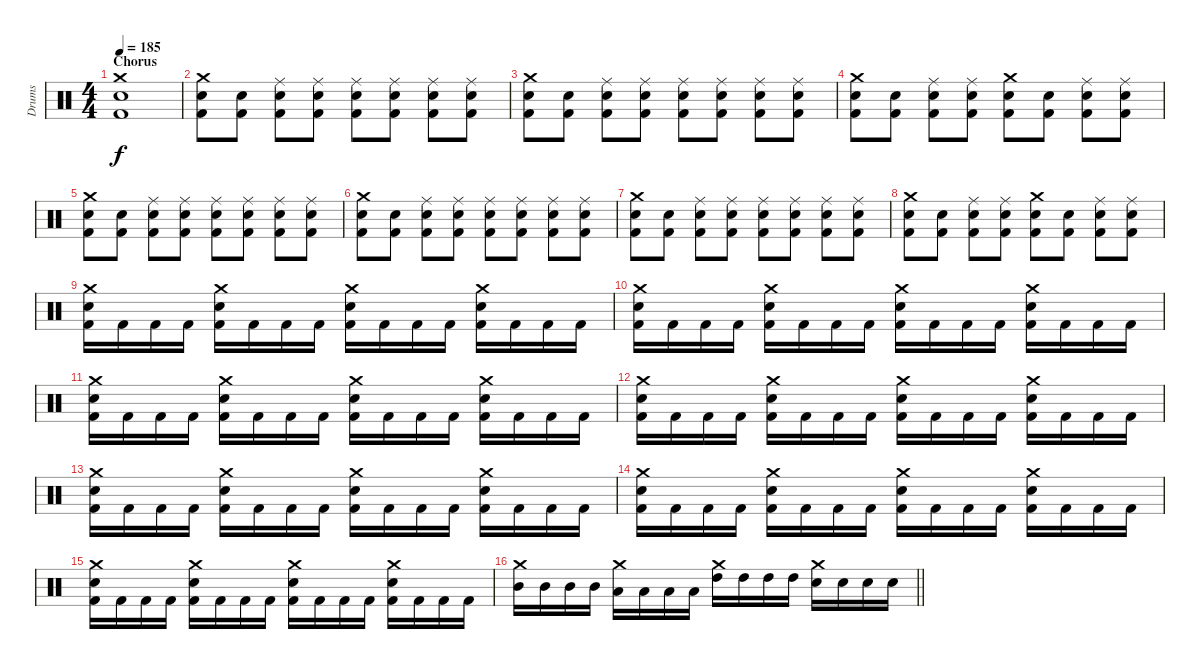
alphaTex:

\track ("Drums" "Drums") {instrument percussion}
\staff {score}
\articulation defaults
\ts (4 4)
\section ("" "Chorus")
\tempo 185
\clef neutral
\ks c
("Crash medium (hit)" "Snare (hit) 2" "Kick (hit) 2").1{dy f} |
("Crash medium (hit)" "Snare (hit) 2" "Kick (hit) 2").8 ("Snare (hit) 2" "Kick (hit) 2").8 ("Ride (middle)" "Snare (hit) 2" "Kick (hit) 2").8 ("Ride (middle)" "Snare (hit) 2" "Kick (hit) 2").8 ("Ride (middle)" "Snare (hit) 2" "Kick (hit) 2").8 ("Ride (middle)" "Snare (hit) 2" "Kick (hit) 2").8 ("Ride (middle)" "Snare (hit) 2" "Kick (hit) 2").8 ("Ride (middle)" "Snare (hit) 2" "Kick (hit) 2").8 |
("Crash medium (hit)" "Snare (hit) 2" "Kick (hit) 2").8 ("Snare (hit) 2" "Kick (hit) 2").8 ("Ride (middle)" "Snare (hit) 2" "Kick (hit) 2").8 ("Ride (middle)" "Snare (hit) 2" "Kick (hit) 2").8 ("Ride (middle)" "Snare (hit) 2" "Kick (hit) 2").8 ("Ride (middle)" "Snare (hit) 2" "Kick (hit) 2").8 ("Ride (middle)" "Snare (hit) 2" "Kick (hit) 2").8 ("Ride (middle)" "Snare (hit) 2" "Kick (hit) 2").8 |
("Crash medium (hit)" "Snare (hit) 2" "Kick (hit) 2").8 ("Snare (hit) 2" "Kick (hit) 2").8 ("Ride (middle)" "Snare (hit) 2" "Kick (hit) 2").8 ("Ride (middle)" "Snare (hit) 2" "Kick (hit) 2").8 ("Crash medium (hit)" "Snare (hit) 2" "Kick (hit) 2").8 ("Snare (hit) 2" "Kick (hit) 2").8 ("Ride (middle)" "Snare (hit) 2" "Kick (hit) 2").8 ("Ride (middle)" "Snare (hit) 2" "Kick (hit) 2").8 |
("Crash medium (hit)" "Snare (hit) 2" "Kick (hit) 2").8 ("Snare (hit) 2" "Kick (hit) 2").8 ("Ride (middle)" "Snare (hit) 2" "Kick (hit) 2").8 ("Ride (middle)" "Snare (hit) 2" "Kick (hit) 2").8 ("Ride (middle)" "Snare (hit) 2" "Kick (hit) 2").8 ("Ride (middle)" "Snare (hit) 2" "Kick (hit) 2").8 ("Ride (middle)" "Snare (hit) 2" "Kick (hit) 2").8 ("Ride (middle)" "Snare (hit) 2" "Kick (hit) 2").8 |
("Crash medium (hit)" "Snare (hit) 2" "Kick (hit) 2").8 ("Snare (hit) 2" "Kick (hit) 2").8 ("Ride (middle)" "Snare (hit) 2" "Kick (hit) 2").8 ("Ride (middle)" "Snare (hit) 2" "Kick (hit) 2").8 ("Ride (middle)" "Snare (hit) 2" "Kick (hit) 2").8 ("Ride (middle)" "Snare (hit) 2" "Kick (hit) 2").8 ("Ride (middle)" "Snare (hit) 2" "Kick (hit) 2").8 ("Ride (middle)" "Snare (hit) 2" "Kick (hit) 2").8 |
("Crash medium (hit)" "Snare (hit) 2" "Kick (hit) 2").8 ("Snare (hit) 2" "Kick (hit) 2").8 ("Ride (middle)" "Snare (hit) 2" "Kick (hit) 2").8 ("Ride (middle)" "Snare (hit) 2" "Kick (hit) 2").8 ("Ride (middle)" "Snare (hit) 2" "Kick (hit) 2").8 ("Ride (middle)" "Snare (hit) 2" "Kick (hit) 2").8 ("Ride (middle)" "Snare (hit) 2" "Kick (hit) 2").8 ("Ride (middle)" "Snare (hit) 2" "Kick (hit) 2").8 |
("Crash medium (hit)" "Snare (hit) 2" "Kick (hit) 2").8 ("Snare (hit) 2" "Kick (hit) 2").8 ("Ride (middle)" "Snare (hit) 2" "Kick (hit) 2").8 ("Ride (middle)" "Snare (hit) 2" "Kick (hit) 2").8 ("Crash medium (hit)" "Snare (hit) 2" "Kick (hit) 2").8 ("Snare (hit) 2" "Kick (hit) 2").8 ("Ride (middle)" "Snare (hit) 2" "Kick (hit) 2").8 ("Ride (middle)" "Snare (hit) 2" "Kick (hit) 2").8 |
("Crash medium (hit)" "Snare (hit) 2" "Kick (hit) 2").16 "Kick (hit) 2".16 "Kick (hit) 2".16 "Kick (hit) 2".16 ("Crash medium (hit)" "Snare (hit) 2" "Kick (hit) 2").16 "Kick (hit) 2".16 "Kick (hit) 2".16 "Kick (hit) 2".16 ("Crash medium (hit)" "Snare (hit) 2" "Kick (hit) 2").16 "Kick (hit) 2".16 "Kick (hit) 2".16 "Kick (hit) 2".16 ("Crash medium (hit)" "Snare (hit) 2" "Kick (hit) 2").16 "Kick (hit) 2".16 "Kick (hit) 2".16 "Kick (hit) 2".16 |
("Crash medium (hit)" "Snare (hit) 2" "Kick (hit) 2").16 "Kick (hit) 2".16 "Kick (hit) 2".16 "Kick (hit) 2".16 ("Crash medium (hit)" "Snare (hit) 2" "Kick (hit) 2").16 "Kick (hit) 2".16 "Kick (hit) 2".16 "Kick (hit) 2".16 ("Crash medium (hit)" "Snare (hit) 2" "Kick (hit) 2").16 "Kick (hit) 2".16 "Kick (hit) 2".16 "Kick (hit) 2".16 ("Crash medium (hit)" "Snare (hit) 2" "Kick (hit) 2").16 "Kick (hit) 2".16 "Kick (hit) 2".16 "Kick (hit) 2".16 |
("Crash medium (hit)" "Snare (hit) 2" "Kick (hit) 2").16 "Kick (hit) 2".16 "Kick (hit) 2".16 "Kick (hit) 2".16 ("Crash medium (hit)" "Snare (hit) 2" "Kick (hit) 2").16 "Kick (hit) 2".16 "Kick (hit) 2".16 "Kick (hit) 2".16 ("Crash medium (hit)" "Snare (hit) 2" "Kick (hit) 2").16 "Kick (hit) 2".16 "Kick (hit) 2".16 "Kick (hit) 2".16 ("Crash medium (hit)" "Snare (hit) 2" "Kick (hit) 2").16 "Kick (hit) 2".16 "Kick (hit) 2".16 "Kick (hit) 2".16 |
("Crash medium (hit)" "Snare (hit) 2" "Kick (hit) 2").16 "Kick (hit) 2".16 "Kick (hit) 2".16 "Kick (hit) 2".16 ("Crash medium (hit)" "Snare (hit) 2" "Kick (hit) 2").16 "Kick (hit) 2".16 "Kick (hit) 2".16 "Kick (hit) 2".16 ("Crash medium (hit)" "Snare (hit) 2" "Kick (hit) 2").16 "Kick (hit) 2".16 "Kick (hit) 2".16 "Kick (hit) 2".16 ("Crash medium (hit)" "Snare (hit) 2" "Kick (hit) 2").16 "Kick (hit) 2".16 "Kick (hit) 2".16 "Kick (hit) 2".16 |
("Crash medium (hit)" "Snare (hit) 2" "Kick (hit) 2").16 "Kick (hit) 2".16 "Kick (hit) 2".16 "Kick (hit) 2".16 ("Crash medium (hit)" "Snare (hit) 2" "Kick (hit) 2").16 "Kick (hit) 2".16 "Kick (hit) 2".16 "Kick (hit) 2".16 ("Crash medium (hit)" "Snare (hit) 2" "Kick (hit) 2").16 "Kick (hit) 2".16 "Kick (hit) 2".16 "Kick (hit) 2".16 ("Crash medium (hit)" "Snare (hit) 2" "Kick (hit) 2").16 "Kick (hit) 2".16 "Kick (hit) 2".16 "Kick (hit) 2".16 |
("Crash medium (hit)" "Snare (hit) 2" "Kick (hit) 2").16 "Kick (hit) 2".16 "Kick (hit) 2".16 "Kick (hit) 2".16 ("Crash medium (hit)" "Snare (hit) 2" "Kick (hit) 2").16 "Kick (hit) 2".16 "Kick (hit) 2".16 "Kick (hit) 2".16 ("Crash medium (hit)" "Snare (hit) 2" "Kick (hit) 2").16 "Kick (hit) 2".16 "Kick (hit) 2".16 "Kick (hit) 2".16 ("Crash medium (hit)" "Snare (hit) 2" "Kick (hit) 2").16 "Kick (hit) 2".16 "Kick (hit) 2".16 "Kick (hit) 2".16 |
("Crash medium (hit)" "Snare (hit) 2" "Kick (hit) 2").16 "Kick (hit) 2".16 "Kick (hit) 2".16 "Kick (hit) 2".16 ("Crash medium (hit)" "Snare (hit) 2" "Kick (hit) 2").16 "Kick (hit) 2".16 "Kick (hit) 2".16 "Kick (hit) 2".16 ("Crash medium (hit)" "Snare (hit) 2" "Kick (hit) 2").16 "Kick (hit) 2".16 "Kick (hit) 2".16 "Kick (hit) 2".16 ("Crash medium (hit)" "Snare (hit) 2" "Kick (hit) 2").16 "Kick (hit) 2".16 "Kick (hit) 2".16 "Kick (hit) 2".16 |
\barLineRight lightlight
("Crash medium (hit)" "Mid Tom (hit)").16 "Mid Tom (hit)".16 "Mid Tom (hit)".16 "Mid Tom (hit)".16 ("Crash medium (hit)" "Low Tom (hit)").16 "Low Tom (hit)".16 "Low Tom (hit)".16 "Low Tom (hit)".16 ("Crash medium (hit)" "High Tom (hit)").16 "High Tom (hit)".16 "High Tom (hit)".16 "High Tom (hit)".16 ("Crash medium (hit)" "Snare (hit) 2").16 "Snare (hit) 2".16 "Snare (hit) 2".16 "Snare (hit) 2".16
